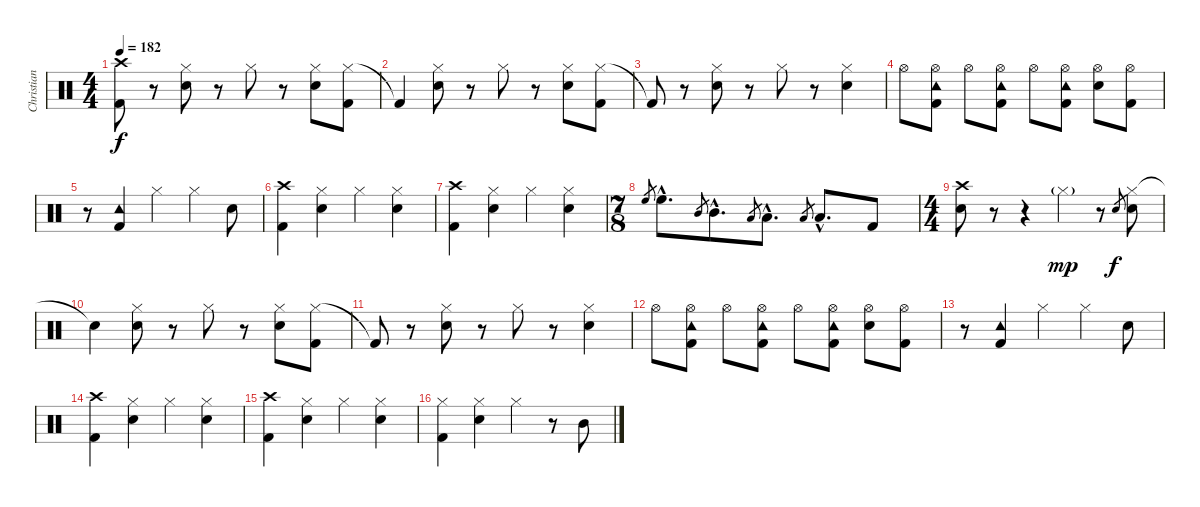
\track ("Christian Meyer" "Christian ") {instrument percussion}
\staff {score}
\articulation defaults
\ts (4 4)
\tempo 182
\clef neutral
\ks c
("Crash high (hit)" "Kick (hit) 2").8{dy f} r.8 ("Hi-Hat (closed)" "Electric Snare (hit)").8 r.8 "Hi-Hat (closed)".8 r.8 ("Hi-Hat (closed)" "Electric Snare (hit)").8 ("Hi-Hat (closed)" "Kick (hit) 2").8 |
"Kick (hit) 2"{t}.4 ("Hi-Hat (closed)" "Electric Snare (hit)").8 r.8 "Hi-Hat (closed)".8 r.8 ("Hi-Hat (closed)" "Electric Snare (hit)").8 ("Hi-Hat (closed)" "Kick (hit) 2").8 |
"Kick (hit) 2"{t}.8 r.8 ("Hi-Hat (closed)" "Electric Snare (hit)").8 r.8 "Hi-Hat (closed)".8 r.8 ("Hi-Hat (closed)" "Electric Snare (hit)").4 |
"Hi-Hat (open)".8 ("Hi-Hat (open)" "Tambourine (hit)" "Kick (hit) 2").8 "Hi-Hat (open)".8 ("Hi-Hat (open)" "Tambourine (hit)" "Kick (hit) 2").8 "Hi-Hat (open)".8 ("Hi-Hat (open)" "Tambourine (hit)" "Kick (hit) 2").8 ("Hi-Hat (open)" "Electric Snare (hit)").8 ("Hi-Hat (open)" "Kick (hit) 2").8 |
r.8 ("Tambourine (hit)" "Kick (hit) 2").4 "Hi-Hat (closed)".4 "Hi-Hat (closed)".4 "Electric Snare (hit)".8 |
("Crash high (hit)" "Kick (hit) 2").4 ("Hi-Hat (closed)" "Electric Snare (hit)").4 "Hi-Hat (closed)".4 ("Hi-Hat (closed)" "Electric Snare (hit)").4 |
("Crash high (hit)" "Kick (hit) 2").4 ("Hi-Hat (closed)" "Electric Snare (hit)").4 "Hi-Hat (closed)".4 ("Hi-Hat (closed)" "Electric Snare (hit)").4 |
\ts (7 8)
"High Floor Tom (hit)".8{gr} "High Floor Tom (hit)"{hac}.8{d} "Mid Tom (hit)".8{gr} "Mid Tom (hit)"{hac}.8{d} "Low Tom (hit)".8{gr} "Low Tom (hit)"{hac}.8{d} "Low Floor Tom (hit)".8{gr} "Low Floor Tom (hit)"{hac}.8{d} "Kick (hit) 2".8 |
\ts (4 4)
("Crash high (hit)" "Electric Snare (hit)").8 r.8 r.4 "Hi-Hat (closed)"{g}.4{dy mp} r.8 "Electric Snare (hit)".8{gr dy f} ("Hi-Hat (closed)" "Electric Snare (hit)").8 |
"Snare (hit)"{t}.4 ("Hi-Hat (closed)" "Electric Snare (hit)").8 r.8 "Hi-Hat (closed)".8 r.8 ("Hi-Hat (closed)" "Electric Snare (hit)").8 ("Hi-Hat (closed)" "Kick (hit) 2").8 |
"Kick (hit) 2"{t}.8 r.8 ("Hi-Hat (closed)" "Electric Snare (hit)").8 r.8 "Hi-Hat (closed)".8 r.8 ("Hi-Hat (closed)" "Electric Snare (hit)").4 |
"Hi-Hat (open)".8 ("Hi-Hat (open)" "Tambourine (hit)" "Kick (hit) 2").8 "Hi-Hat (open)".8 ("Hi-Hat (open)" "Tambourine (hit)" "Kick (hit) 2").8 "Hi-Hat (open)".8 ("Hi-Hat (open)" "Tambourine (hit)" "Kick (hit) 2").8 ("Hi-Hat (open)" "Electric Snare (hit)").8 ("Hi-Hat (open)" "Kick (hit) 2").8 |
r.8 ("Tambourine (hit)" "Kick (hit) 2").4 "Hi-Hat (closed)".4 "Hi-Hat (closed)".4 "Electric Snare (hit)".8 |
("Crash high (hit)" "Kick (hit) 2").4 ("Hi-Hat (closed)" "Electric Snare (hit)").4 "Hi-Hat (closed)".4 ("Hi-Hat (closed)" "Electric Snare (hit)").4 |
("Crash high (hit)" "Kick (hit) 2").4 ("Hi-Hat (closed)" "Electric Snare (hit)").4 "Hi-Hat (closed)".4 ("Hi-Hat (closed)" "Electric Snare (hit)").4 |
("Hi-Hat (closed)" "Kick (hit) 2").4 ("Hi-Hat (closed)" "Electric Snare (hit)").4 "Hi-Hat (closed)".4 r.8 "Mid Tom (hit)".8
